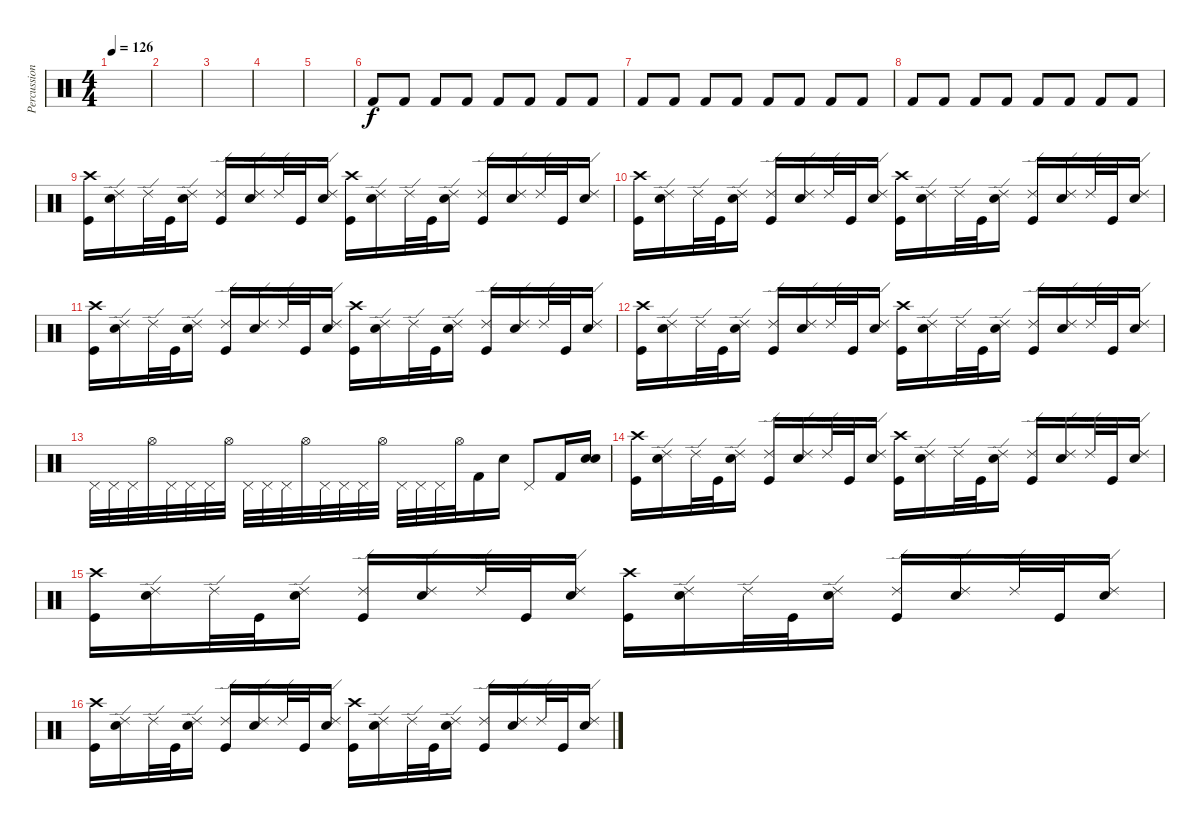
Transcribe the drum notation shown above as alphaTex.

\track ("Percussion" "Percussion") {instrument percussion}
\staff {score}
\articulation defaults
\ts (4 4)
\tempo 126
\clef neutral
\ks c
|
|
|
|
|
"Kick (hit) 2".8 "Kick (hit) 2".8 "Kick (hit) 2".8 "Kick (hit) 2".8 "Kick (hit) 2".8 "Kick (hit) 2".8 "Kick (hit) 2".8 "Kick (hit) 2".8 |
"Kick (hit) 2".8 "Kick (hit) 2".8 "Kick (hit) 2".8 "Kick (hit) 2".8 "Kick (hit) 2".8 "Kick (hit) 2".8 "Kick (hit) 2".8 "Kick (hit) 2".8 |
"Kick (hit) 2".8 "Kick (hit) 2".8 "Kick (hit) 2".8 "Kick (hit) 2".8 "Kick (hit) 2".8 "Kick (hit) 2".8 "Kick (hit) 2".8 "Kick (hit) 2".8 |
("Crash high (hit)" "Kick (hit)").16 ("Ride (edge) 2" "Snare (hit) 2").16 "Ride (edge) 2".32 "Kick (hit)".32 ("Ride (edge) 2" "Snare (hit) 2").16 ("Ride (edge) 2" "Kick (hit)").16 ("Ride (edge) 2" "Snare (hit) 2").16 "Ride (edge) 2".32 "Kick (hit)".32 ("Ride (edge) 2" "Snare (hit) 2").16 ("Crash high (hit)" "Kick (hit)").16 ("Ride (edge) 2" "Snare (hit) 2").16 "Ride (edge) 2".32 "Kick (hit)".32 ("Ride (edge) 2" "Snare (hit) 2").16 ("Ride (edge) 2" "Kick (hit)").16 ("Ride (edge) 2" "Snare (hit) 2").16 "Ride (edge) 2".32 "Kick (hit)".32 ("Ride (edge) 2" "Snare (hit) 2").16 |
("Crash high (hit)" "Kick (hit)").16 ("Ride (edge) 2" "Snare (hit) 2").16 "Ride (edge) 2".32 "Kick (hit)".32 ("Ride (edge) 2" "Snare (hit) 2").16 ("Ride (edge) 2" "Kick (hit)").16 ("Ride (edge) 2" "Snare (hit) 2").16 "Ride (edge) 2".32 "Kick (hit)".32 ("Ride (edge) 2" "Snare (hit) 2").16 ("Crash high (hit)" "Kick (hit)").16 ("Ride (edge) 2" "Snare (hit) 2").16 "Ride (edge) 2".32 "Kick (hit)".32 ("Ride (edge) 2" "Snare (hit) 2").16 ("Ride (edge) 2" "Kick (hit)").16 ("Ride (edge) 2" "Snare (hit) 2").16 "Ride (edge) 2".32 "Kick (hit)".32 ("Ride (edge) 2" "Snare (hit) 2").16 |
("Crash high (hit)" "Kick (hit)").16 ("Ride (edge) 2" "Snare (hit) 2").16 "Ride (edge) 2".32 "Kick (hit)".32 ("Ride (edge) 2" "Snare (hit) 2").16 ("Ride (edge) 2" "Kick (hit)").16 ("Ride (edge) 2" "Snare (hit) 2").16 "Ride (edge) 2".32 "Kick (hit)".32 ("Ride (edge) 2" "Snare (hit) 2").16 ("Crash high (hit)" "Kick (hit)").16 ("Ride (edge) 2" "Snare (hit) 2").16 "Ride (edge) 2".32 "Kick (hit)".32 ("Ride (edge) 2" "Snare (hit) 2").16 ("Ride (edge) 2" "Kick (hit)").16 ("Ride (edge) 2" "Snare (hit) 2").16 "Ride (edge) 2".32 "Kick (hit)".32 ("Ride (edge) 2" "Snare (hit) 2").16 |
("Crash high (hit)" "Kick (hit)").16 ("Ride (edge) 2" "Snare (hit) 2").16 "Ride (edge) 2".32 "Kick (hit)".32 ("Ride (edge) 2" "Snare (hit) 2").16 ("Ride (edge) 2" "Kick (hit)").16 ("Ride (edge) 2" "Snare (hit) 2").16 "Ride (edge) 2".32 "Kick (hit)".32 ("Ride (edge) 2" "Snare (hit) 2").16 ("Crash high (hit)" "Kick (hit)").16 ("Ride (edge) 2" "Snare (hit) 2").16 "Ride (edge) 2".32 "Kick (hit)".32 ("Ride (edge) 2" "Snare (hit) 2").16 ("Ride (edge) 2" "Kick (hit)").16 ("Ride (edge) 2" "Snare (hit) 2").16 "Ride (edge) 2".32 "Kick (hit)".32 ("Ride (edge) 2" "Snare (hit) 2").16 |
"Pedal Hi-Hat (hit)".32 "Pedal Hi-Hat (hit)".32 "Pedal Hi-Hat (hit)".32 "Hi-Hat (open)".32 "Pedal Hi-Hat (hit)".32 "Pedal Hi-Hat (hit)".32 "Pedal Hi-Hat (hit)".32 "Hi-Hat (open)".32 "Pedal Hi-Hat (hit)".32 "Pedal Hi-Hat (hit)".32 "Pedal Hi-Hat (hit)".32 "Hi-Hat (open)".32 "Pedal Hi-Hat (hit)".32 "Pedal Hi-Hat (hit)".32 "Pedal Hi-Hat (hit)".32 "Hi-Hat (open)".32 "Pedal Hi-Hat (hit)".32 "Pedal Hi-Hat (hit)".32 "Pedal Hi-Hat (hit)".32 "Hi-Hat (open)".32 "Kick (hit) 2".16 "Snare (hit) 2".16 "Pedal Hi-Hat (hit)"{x}.8 "Kick (hit) 2".16 ("Snare (hit) 2"{x} "Snare (hit) 2").16 |
("Crash high (hit)" "Kick (hit)").16 ("Ride (edge) 2" "Snare (hit) 2").16 "Ride (edge) 2".32 "Kick (hit)".32 ("Ride (edge) 2" "Snare (hit) 2").16 ("Ride (edge) 2" "Kick (hit)").16 ("Ride (edge) 2" "Snare (hit) 2").16 "Ride (edge) 2".32 "Kick (hit)".32 ("Ride (edge) 2" "Snare (hit) 2").16 ("Crash high (hit)" "Kick (hit)").16 ("Ride (edge) 2" "Snare (hit) 2").16 "Ride (edge) 2".32 "Kick (hit)".32 ("Ride (edge) 2" "Snare (hit) 2").16 ("Ride (edge) 2" "Kick (hit)").16 ("Ride (edge) 2" "Snare (hit) 2").16 "Ride (edge) 2".32 "Kick (hit)".32 ("Ride (edge) 2" "Snare (hit) 2").16 |
("Crash high (hit)" "Kick (hit)").16 ("Ride (edge) 2" "Snare (hit) 2").16 "Ride (edge) 2".32 "Kick (hit)".32 ("Ride (edge) 2" "Snare (hit) 2").16 ("Ride (edge) 2" "Kick (hit)").16 ("Ride (edge) 2" "Snare (hit) 2").16 "Ride (edge) 2".32 "Kick (hit)".32 ("Ride (edge) 2" "Snare (hit) 2").16 ("Crash high (hit)" "Kick (hit)").16 ("Ride (edge) 2" "Snare (hit) 2").16 "Ride (edge) 2".32 "Kick (hit)".32 ("Ride (edge) 2" "Snare (hit) 2").16 ("Ride (edge) 2" "Kick (hit)").16 ("Ride (edge) 2" "Snare (hit) 2").16 "Ride (edge) 2".32 "Kick (hit)".32 ("Ride (edge) 2" "Snare (hit) 2").16 |
("Crash high (hit)" "Kick (hit)").16 ("Ride (edge) 2" "Snare (hit) 2").16 "Ride (edge) 2".32 "Kick (hit)".32 ("Ride (edge) 2" "Snare (hit) 2").16 ("Ride (edge) 2" "Kick (hit)").16 ("Ride (edge) 2" "Snare (hit) 2").16 "Ride (edge) 2".32 "Kick (hit)".32 ("Ride (edge) 2" "Snare (hit) 2").16 ("Crash high (hit)" "Kick (hit)").16 ("Ride (edge) 2" "Snare (hit) 2").16 "Ride (edge) 2".32 "Kick (hit)".32 ("Ride (edge) 2" "Snare (hit) 2").16 ("Ride (edge) 2" "Kick (hit)").16 ("Ride (edge) 2" "Snare (hit) 2").16 "Ride (edge) 2".32 "Kick (hit)".32 ("Ride (edge) 2" "Snare (hit) 2").16
